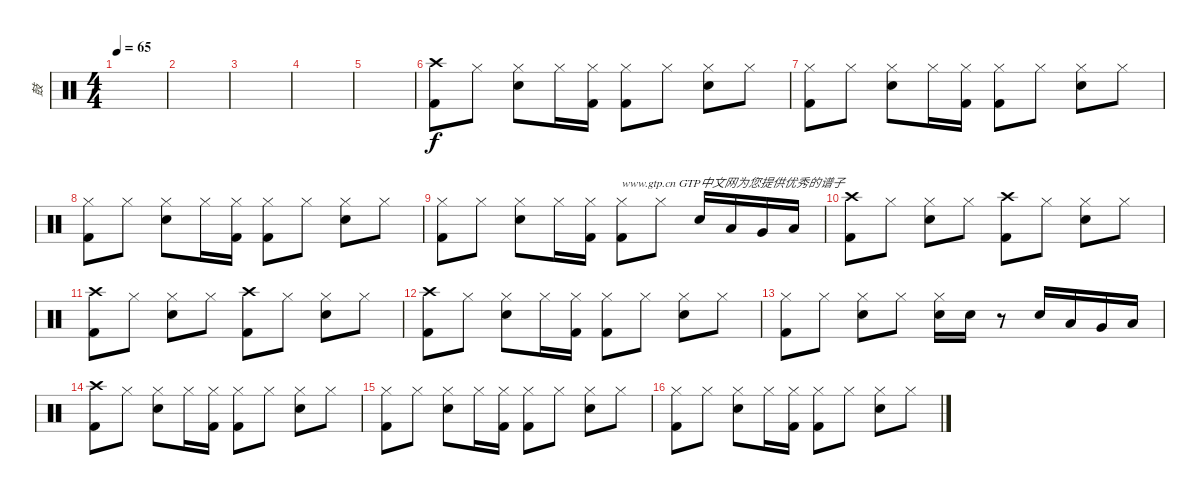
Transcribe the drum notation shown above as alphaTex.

\track ("鼓" "鼓") {instrument percussion}
\staff {score}
\articulation defaults
\ts (4 4)
\tempo 65
\clef neutral
\ks c
|
|
|
|
|
("Kick (hit) 2" "Crash high (hit)").8 "Hi-Hat (closed)".8 ("Snare (hit) 2" "Hi-Hat (closed)").8 "Hi-Hat (closed)".16 ("Kick (hit) 2" "Hi-Hat (closed)").16 ("Kick (hit) 2" "Hi-Hat (closed)").8 "Hi-Hat (closed)".8 ("Snare (hit) 2" "Hi-Hat (closed)").8 "Hi-Hat (closed)".8 |
("Kick (hit) 2" "Hi-Hat (closed)").8 "Hi-Hat (closed)".8 ("Snare (hit) 2" "Hi-Hat (closed)").8 "Hi-Hat (closed)".16 ("Kick (hit) 2" "Hi-Hat (closed)").16 ("Kick (hit) 2" "Hi-Hat (closed)").8 "Hi-Hat (closed)".8 ("Snare (hit) 2" "Hi-Hat (closed)").8 "Hi-Hat (closed)".8 |
("Kick (hit) 2" "Hi-Hat (closed)").8 "Hi-Hat (closed)".8 ("Snare (hit) 2" "Hi-Hat (closed)").8 "Hi-Hat (closed)".16 ("Kick (hit) 2" "Hi-Hat (closed)").16 ("Kick (hit) 2" "Hi-Hat (closed)").8 "Hi-Hat (closed)".8 ("Snare (hit) 2" "Hi-Hat (closed)").8 "Hi-Hat (closed)".8 |
("Kick (hit) 2" "Hi-Hat (closed)").8 "Hi-Hat (closed)".8 ("Snare (hit) 2" "Hi-Hat (closed)").8 "Hi-Hat (closed)".16 ("Kick (hit) 2" "Hi-Hat (closed)").16 ("Kick (hit) 2" "Hi-Hat (closed)").8{txt "www.gtp.cn GTP中文网为您提供优秀的谱子"} "Hi-Hat (closed)".8 "Snare (hit) 2".16 "Low Floor Tom (hit)".16 "Very Low Tom (hit)".16 "Low Tom (hit)".16 |
("Kick (hit) 2" "Crash high (hit)").8 "Hi-Hat (closed)".8 ("Snare (hit) 2" "Hi-Hat (closed)").8 "Hi-Hat (closed)".8 ("Kick (hit) 2" "Crash high (hit)").8 "Hi-Hat (closed)".8 ("Snare (hit) 2" "Hi-Hat (closed)").8 "Hi-Hat (closed)".8 |
("Kick (hit) 2" "Crash high (hit)").8 "Hi-Hat (closed)".8 ("Snare (hit) 2" "Hi-Hat (closed)").8 "Hi-Hat (closed)".8 ("Kick (hit) 2" "Crash high (hit)").8 "Hi-Hat (closed)".8 ("Snare (hit) 2" "Hi-Hat (closed)").8 "Hi-Hat (closed)".8 |
("Kick (hit) 2" "Crash high (hit)").8 "Hi-Hat (closed)".8 ("Snare (hit) 2" "Hi-Hat (closed)").8 "Hi-Hat (closed)".16 ("Kick (hit) 2" "Hi-Hat (closed)").16 ("Kick (hit) 2" "Hi-Hat (closed)").8 "Hi-Hat (closed)".8 ("Snare (hit) 2" "Hi-Hat (closed)").8 "Hi-Hat (closed)".8 |
("Kick (hit) 2" "Hi-Hat (closed)").8 "Hi-Hat (closed)".8 ("Snare (hit) 2" "Hi-Hat (closed)").8 "Hi-Hat (closed)".8 ("Snare (hit) 2" "Hi-Hat (closed)").16 "Snare (hit) 2".16 r.8 "Snare (hit) 2".16 "Low Floor Tom (hit)".16 "Very Low Tom (hit)".16 "Low Tom (hit)".16 |
("Kick (hit) 2" "Crash high (hit)").8 "Hi-Hat (closed)".8 ("Snare (hit) 2" "Hi-Hat (closed)").8 "Hi-Hat (closed)".16 ("Kick (hit) 2" "Hi-Hat (closed)").16 ("Kick (hit) 2" "Hi-Hat (closed)").8 "Hi-Hat (closed)".8 ("Snare (hit) 2" "Hi-Hat (closed)").8 "Hi-Hat (closed)".8 |
("Kick (hit) 2" "Hi-Hat (closed)").8 "Hi-Hat (closed)".8 ("Snare (hit) 2" "Hi-Hat (closed)").8 "Hi-Hat (closed)".16 ("Kick (hit) 2" "Hi-Hat (closed)").16 ("Kick (hit) 2" "Hi-Hat (closed)").8 "Hi-Hat (closed)".8 ("Snare (hit) 2" "Hi-Hat (closed)").8 "Hi-Hat (closed)".8 |
("Kick (hit) 2" "Hi-Hat (closed)").8 "Hi-Hat (closed)".8 ("Snare (hit) 2" "Hi-Hat (closed)").8 "Hi-Hat (closed)".16 ("Kick (hit) 2" "Hi-Hat (closed)").16 ("Kick (hit) 2" "Hi-Hat (closed)").8 "Hi-Hat (closed)".8 ("Snare (hit) 2" "Hi-Hat (closed)").8 "Hi-Hat (closed)".8
